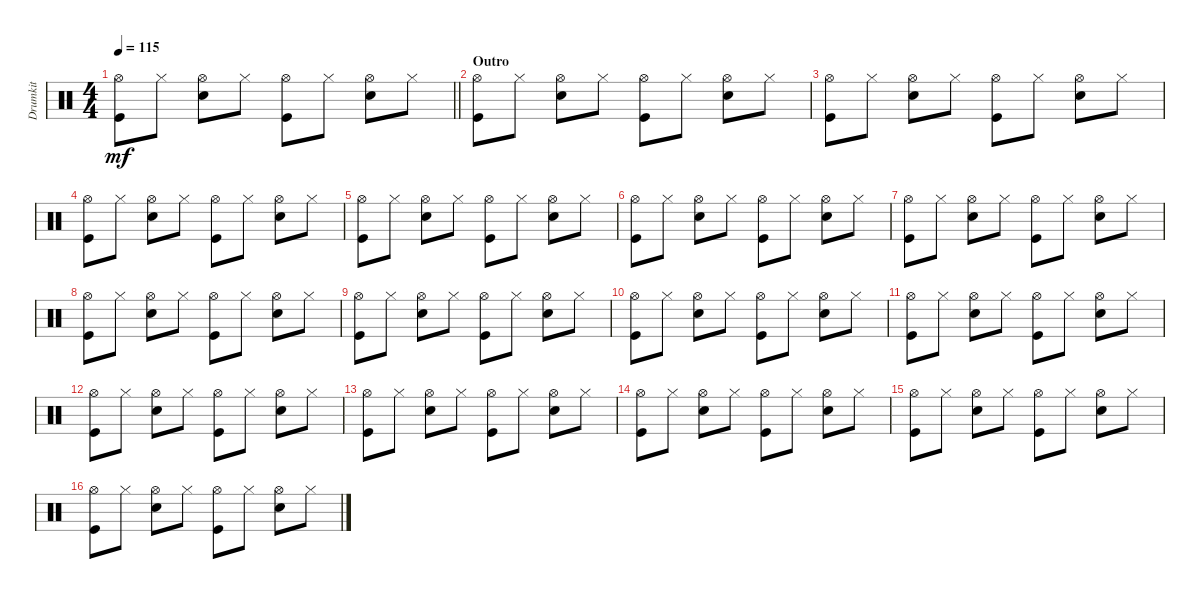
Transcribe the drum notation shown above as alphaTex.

\track ("Drumkit" "Drumkit") {instrument percussion}
\staff {score}
\articulation defaults
\ts (4 4)
\tempo 115
\clef neutral
\barLineRight lightlight
\ks c
("Hi-Hat (open)" "Kick (hit)").8{dy mf} "Hi-Hat (closed)".8 ("Hi-Hat (open)" "Snare (hit) 2").8 "Hi-Hat (closed)".8 ("Hi-Hat (open)" "Kick (hit)").8 "Hi-Hat (closed)".8 ("Hi-Hat (open)" "Snare (hit) 2").8 "Hi-Hat (closed)".8 |
\section ("" "Outro")
("Hi-Hat (open)" "Kick (hit)").8 "Hi-Hat (closed)".8 ("Hi-Hat (open)" "Snare (hit) 2").8 "Hi-Hat (closed)".8 ("Hi-Hat (open)" "Kick (hit)").8 "Hi-Hat (closed)".8 ("Hi-Hat (open)" "Snare (hit) 2").8 "Hi-Hat (closed)".8 |
("Hi-Hat (open)" "Kick (hit)").8 "Hi-Hat (closed)".8 ("Hi-Hat (open)" "Snare (hit) 2").8 "Hi-Hat (closed)".8 ("Hi-Hat (open)" "Kick (hit)").8 "Hi-Hat (closed)".8 ("Hi-Hat (open)" "Snare (hit) 2").8 "Hi-Hat (closed)".8 |
("Hi-Hat (open)" "Kick (hit)").8 "Hi-Hat (closed)".8 ("Hi-Hat (open)" "Snare (hit) 2").8 "Hi-Hat (closed)".8 ("Hi-Hat (open)" "Kick (hit)").8 "Hi-Hat (closed)".8 ("Hi-Hat (open)" "Snare (hit) 2").8 "Hi-Hat (closed)".8 |
("Hi-Hat (open)" "Kick (hit)").8 "Hi-Hat (closed)".8 ("Hi-Hat (open)" "Snare (hit) 2").8 "Hi-Hat (closed)".8 ("Hi-Hat (open)" "Kick (hit)").8 "Hi-Hat (closed)".8 ("Hi-Hat (open)" "Snare (hit) 2").8 "Hi-Hat (closed)".8 |
("Hi-Hat (open)" "Kick (hit)").8 "Hi-Hat (closed)".8 ("Hi-Hat (open)" "Snare (hit) 2").8 "Hi-Hat (closed)".8 ("Hi-Hat (open)" "Kick (hit)").8 "Hi-Hat (closed)".8 ("Hi-Hat (open)" "Snare (hit) 2").8 "Hi-Hat (closed)".8 |
("Hi-Hat (open)" "Kick (hit)").8 "Hi-Hat (closed)".8 ("Hi-Hat (open)" "Snare (hit) 2").8 "Hi-Hat (closed)".8 ("Hi-Hat (open)" "Kick (hit)").8 "Hi-Hat (closed)".8 ("Hi-Hat (open)" "Snare (hit) 2").8 "Hi-Hat (closed)".8 |
("Hi-Hat (open)" "Kick (hit)").8 "Hi-Hat (closed)".8 ("Hi-Hat (open)" "Snare (hit) 2").8 "Hi-Hat (closed)".8 ("Hi-Hat (open)" "Kick (hit)").8 "Hi-Hat (closed)".8 ("Hi-Hat (open)" "Snare (hit) 2").8 "Hi-Hat (closed)".8 |
("Hi-Hat (open)" "Kick (hit)").8 "Hi-Hat (closed)".8 ("Hi-Hat (open)" "Snare (hit) 2").8 "Hi-Hat (closed)".8 ("Hi-Hat (open)" "Kick (hit)").8 "Hi-Hat (closed)".8 ("Hi-Hat (open)" "Snare (hit) 2").8 "Hi-Hat (closed)".8 |
("Hi-Hat (open)" "Kick (hit)").8 "Hi-Hat (closed)".8 ("Hi-Hat (open)" "Snare (hit) 2").8 "Hi-Hat (closed)".8 ("Hi-Hat (open)" "Kick (hit)").8 "Hi-Hat (closed)".8 ("Hi-Hat (open)" "Snare (hit) 2").8 "Hi-Hat (closed)".8 |
("Hi-Hat (open)" "Kick (hit)").8 "Hi-Hat (closed)".8 ("Hi-Hat (open)" "Snare (hit) 2").8 "Hi-Hat (closed)".8 ("Hi-Hat (open)" "Kick (hit)").8 "Hi-Hat (closed)".8 ("Hi-Hat (open)" "Snare (hit) 2").8 "Hi-Hat (closed)".8 |
("Hi-Hat (open)" "Kick (hit)").8 "Hi-Hat (closed)".8 ("Hi-Hat (open)" "Snare (hit) 2").8 "Hi-Hat (closed)".8 ("Hi-Hat (open)" "Kick (hit)").8 "Hi-Hat (closed)".8 ("Hi-Hat (open)" "Snare (hit) 2").8 "Hi-Hat (closed)".8 |
("Hi-Hat (open)" "Kick (hit)").8 "Hi-Hat (closed)".8 ("Hi-Hat (open)" "Snare (hit) 2").8 "Hi-Hat (closed)".8 ("Hi-Hat (open)" "Kick (hit)").8 "Hi-Hat (closed)".8 ("Hi-Hat (open)" "Snare (hit) 2").8 "Hi-Hat (closed)".8 |
("Hi-Hat (open)" "Kick (hit)").8 "Hi-Hat (closed)".8 ("Hi-Hat (open)" "Snare (hit) 2").8 "Hi-Hat (closed)".8 ("Hi-Hat (open)" "Kick (hit)").8 "Hi-Hat (closed)".8 ("Hi-Hat (open)" "Snare (hit) 2").8 "Hi-Hat (closed)".8 |
("Hi-Hat (open)" "Kick (hit)").8 "Hi-Hat (closed)".8 ("Hi-Hat (open)" "Snare (hit) 2").8 "Hi-Hat (closed)".8 ("Hi-Hat (open)" "Kick (hit)").8 "Hi-Hat (closed)".8 ("Hi-Hat (open)" "Snare (hit) 2").8 "Hi-Hat (closed)".8 |
("Hi-Hat (open)" "Kick (hit)").8 "Hi-Hat (closed)".8 ("Hi-Hat (open)" "Snare (hit) 2").8 "Hi-Hat (closed)".8 ("Hi-Hat (open)" "Kick (hit)").8 "Hi-Hat (closed)".8 ("Hi-Hat (open)" "Snare (hit) 2").8 "Hi-Hat (closed)".8
